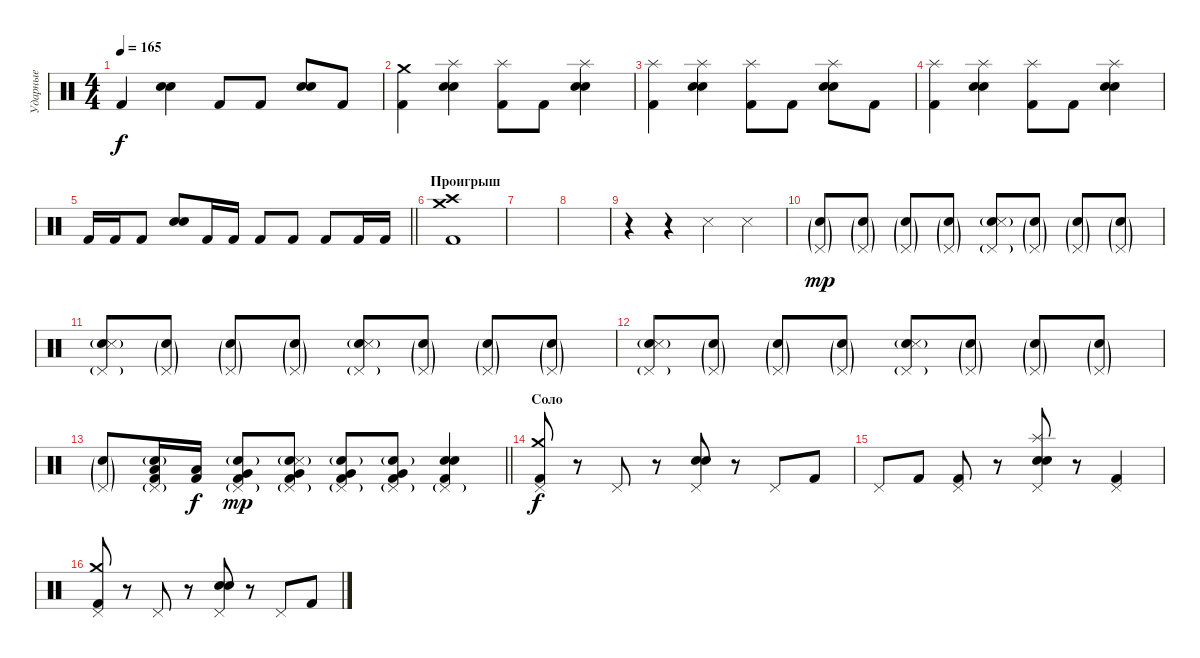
\track ("Ударные" "Ударные") {instrument percussion}
\staff {score}
\articulation defaults
\ts (4 4)
\tempo 165
\clef neutral
\ks c "Kick (hit) 2".4{dy f}
("Electric Snare (hit)" "Snare (hit) 2").4 "Kick (hit) 2".8 "Kick (hit) 2".8 ("Electric Snare (hit)" "Snare (hit) 2").8 "Kick (hit) 2".8 |
("Crash medium (hit)" "Kick (hit) 2").4 ("Splash (hit)" "Electric Snare (hit)" "Snare (hit) 2").4 ("Splash (hit)" "Kick (hit) 2").8 "Kick (hit) 2".8 ("Splash (hit)" "Electric Snare (hit)" "Snare (hit) 2").4 |
("Splash (hit)" "Kick (hit) 2").4 ("Splash (hit)" "Electric Snare (hit)" "Snare (hit) 2").4 ("Splash (hit)" "Kick (hit) 2").8 "Kick (hit) 2".8 ("Splash (hit)" "Electric Snare (hit)" "Snare (hit) 2").8 "Kick (hit) 2".8 |
("Splash (hit)" "Kick (hit) 2").4 ("Splash (hit)" "Electric Snare (hit)" "Snare (hit) 2").4 ("Splash (hit)" "Kick (hit) 2").8 "Kick (hit) 2".8 ("Splash (hit)" "Electric Snare (hit)" "Snare (hit) 2").4 |
\barLineRight lightlight "Kick (hit) 2".16 "Kick (hit) 2".16 "Kick (hit) 2".8
("Electric Snare (hit)" "Snare (hit) 2").8 "Kick (hit) 2".16 "Kick (hit) 2".16 "Kick (hit) 2".8 "Kick (hit) 2".8 "Kick (hit) 2".8 "Kick (hit) 2".16 "Kick (hit) 2".16 |
\section ("" "Проигрыш")
("Crash medium (hit)" "Crash high (hit)" "Kick (hit) 2").1 |
|
|
r.4 r.4 "Metronome (hit)".4 "Snare (side stick) 3".4 |
("Pedal Hi-Hat (hit)"{g} "Electric Snare (hit)"{g}).8{dy mp} ("Pedal Hi-Hat (hit)"{g} "Electric Snare (hit)"{g}).8 ("Pedal Hi-Hat (hit)"{g} "Electric Snare (hit)"{g}).8 ("Pedal Hi-Hat (hit)"{g} "Electric Snare (hit)"{g}).8 ("Pedal Hi-Hat (hit)"{g} "Electric Snare (hit)"{g} "Snare (side stick) 3").8 ("Pedal Hi-Hat (hit)"{g} "Electric Snare (hit)"{g}).8 ("Pedal Hi-Hat (hit)"{g} "Electric Snare (hit)"{g}).8 ("Pedal Hi-Hat (hit)"{g} "Electric Snare (hit)"{g}).8 |
("Pedal Hi-Hat (hit)"{g} "Electric Snare (hit)"{g} "Metronome (hit)").8 ("Pedal Hi-Hat (hit)"{g} "Electric Snare (hit)"{g}).8 ("Pedal Hi-Hat (hit)"{g} "Electric Snare (hit)"{g}).8 ("Pedal Hi-Hat (hit)"{g} "Electric Snare (hit)"{g}).8 ("Pedal Hi-Hat (hit)"{g} "Electric Snare (hit)"{g} "Snare (side stick) 3").8 ("Pedal Hi-Hat (hit)"{g} "Electric Snare (hit)"{g}).8 ("Pedal Hi-Hat (hit)"{g} "Electric Snare (hit)"{g}).8 ("Pedal Hi-Hat (hit)"{g} "Electric Snare (hit)"{g}).8 |
("Pedal Hi-Hat (hit)"{g} "Electric Snare (hit)"{g} "Metronome (hit)").8 ("Pedal Hi-Hat (hit)"{g} "Electric Snare (hit)"{g}).8 ("Pedal Hi-Hat (hit)"{g} "Electric Snare (hit)"{g}).8 ("Pedal Hi-Hat (hit)"{g} "Electric Snare (hit)"{g}).8 ("Pedal Hi-Hat (hit)"{g} "Electric Snare (hit)"{g} "Snare (side stick) 3").8 ("Pedal Hi-Hat (hit)"{g} "Electric Snare (hit)"{g}).8 ("Pedal Hi-Hat (hit)"{g} "Electric Snare (hit)"{g}).8 ("Pedal Hi-Hat (hit)"{g} "Electric Snare (hit)"{g}).8 |
\barLineRight lightlight
("Pedal Hi-Hat (hit)"{g} "Electric Snare (hit)"{g}).8 ("Pedal Hi-Hat (hit)"{g} "Electric Snare (hit)"{g} "Low Tom (hit)" "Kick (hit) 2").16 ("Low Tom (hit)" "Kick (hit) 2").16{dy f} ("Pedal Hi-Hat (hit)"{g} "Electric Snare (hit)"{g} "Very Low Tom (hit)" "Kick (hit) 2").8{dy mp} ("Pedal Hi-Hat (hit)"{g} "Electric Snare (hit)"{g} "Very Low Tom (hit)" "Snare (side stick) 3" "Kick (hit) 2").8 ("Pedal Hi-Hat (hit)"{g} "Electric Snare (hit)"{g} "Very Low Tom (hit)" "Kick (hit) 2").8 ("Pedal Hi-Hat (hit)"{g} "Electric Snare (hit)"{g} "Very Low Tom (hit)" "Kick (hit) 2").8 ("Pedal Hi-Hat (hit)"{g} "Electric Snare (hit)" "Snare (hit) 2" "Kick (hit) 2").4 |
\section ("" "Соло")
("Pedal Hi-Hat (hit)" "Crash medium (hit)" "Kick (hit) 2").8{dy f} r.8 "Pedal Hi-Hat (hit)".8 r.8 ("Pedal Hi-Hat (hit)" "Electric Snare (hit)" "Snare (hit) 2").8 r.8 "Pedal Hi-Hat (hit)".8 "Kick (hit) 2".8 |
"Pedal Hi-Hat (hit)".8 "Kick (hit) 2".8 ("Pedal Hi-Hat (hit)" "Kick (hit) 2").8 r.8 ("Pedal Hi-Hat (hit)" "Splash (hit)" "Electric Snare (hit)" "Snare (hit) 2").8 r.8 ("Pedal Hi-Hat (hit)" "Kick (hit) 2").4 |
("Pedal Hi-Hat (hit)" "Crash medium (hit)" "Kick (hit) 2").8 r.8 "Pedal Hi-Hat (hit)".8 r.8 ("Pedal Hi-Hat (hit)" "Electric Snare (hit)" "Snare (hit) 2").8 r.8 "Pedal Hi-Hat (hit)".8 "Kick (hit) 2".8
